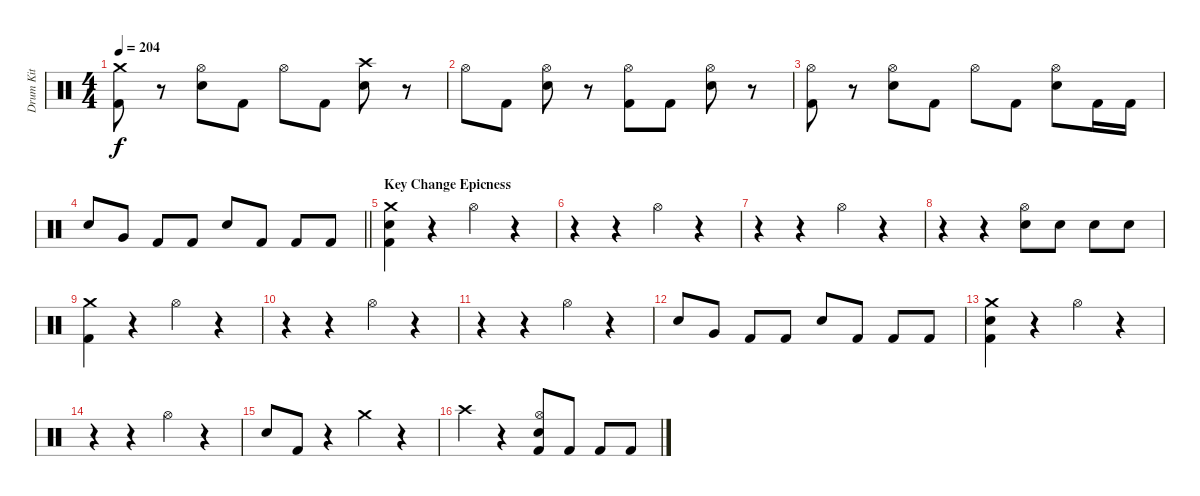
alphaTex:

\track ("Drum Kit" "Drum Kit") {instrument percussion}
\staff {score}
\articulation defaults
\ts (4 4)
\tempo 204
\clef neutral
\ks c
("Crash medium (hit)" "Kick (hit) 2").8{dy f} r.8 ("Hi-Hat (open)" "Snare (hit) 2").8 "Kick (hit) 2".8 "Hi-Hat (open)".8 "Kick (hit) 2".8 ("Crash high (hit)" "Snare (hit) 2").8 r.8 |
"Hi-Hat (open)".8 "Kick (hit) 2".8 ("Hi-Hat (open)" "Snare (hit) 2").8 r.8 ("Hi-Hat (open)" "Kick (hit) 2").8 "Kick (hit) 2".8 ("Hi-Hat (open)" "Snare (hit) 2").8 r.8 |
("Hi-Hat (open)" "Kick (hit) 2").8 r.8 ("Hi-Hat (open)" "Snare (hit) 2").8 "Kick (hit) 2".8 "Hi-Hat (open)".8 "Kick (hit) 2".8 ("Hi-Hat (open)" "Snare (hit) 2").8 "Kick (hit) 2".16 "Kick (hit) 2".16 |
\barLineRight lightlight "Snare (hit) 2".8 "Very Low Tom (hit)".8 "Kick (hit) 2".8 "Kick (hit) 2".8 "Snare (hit) 2".8 "Kick (hit) 2".8 "Kick (hit) 2".8 "Kick (hit) 2".8
|
\section ("" "Key Change Epicness")
("Crash medium (hit)" "Snare (hit) 2" "Kick (hit) 2").4 r.4 "Hi-Hat (open)".4 r.4 |
r.4 r.4 "Hi-Hat (open)".4 r.4 |
r.4 r.4 "Hi-Hat (open)".4 r.4 |
r.4 r.4 ("Hi-Hat (open)" "Snare (hit) 2").8 "Snare (hit) 2".8 "Snare (hit) 2".8 "Snare (hit) 2".8 |
("Crash medium (hit)" "Kick (hit) 2").4 r.4 "Hi-Hat (open)".4 r.4 |
r.4 r.4 "Hi-Hat (open)".4 r.4 |
r.4 r.4 "Hi-Hat (open)".4 r.4 |
"Snare (hit) 2".8 "Very Low Tom (hit)".8 "Kick (hit) 2".8 "Kick (hit) 2".8 "Snare (hit) 2".8 "Kick (hit) 2".8 "Kick (hit) 2".8 "Kick (hit) 2".8 |
("Crash medium (hit)" "Snare (hit) 2" "Kick (hit) 2").4 r.4 "Hi-Hat (open)".4 r.4 |
r.4 r.4 "Hi-Hat (open)".4 r.4 |
"Snare (hit) 2".8 "Kick (hit) 2".8 r.4 "Crash medium (hit)".4 r.4 |
"Crash high (hit)".4 r.4 ("Hi-Hat (open)" "Snare (hit) 2" "Kick (hit) 2").8 "Kick (hit) 2".8 "Kick (hit) 2".8 "Kick (hit) 2".8
